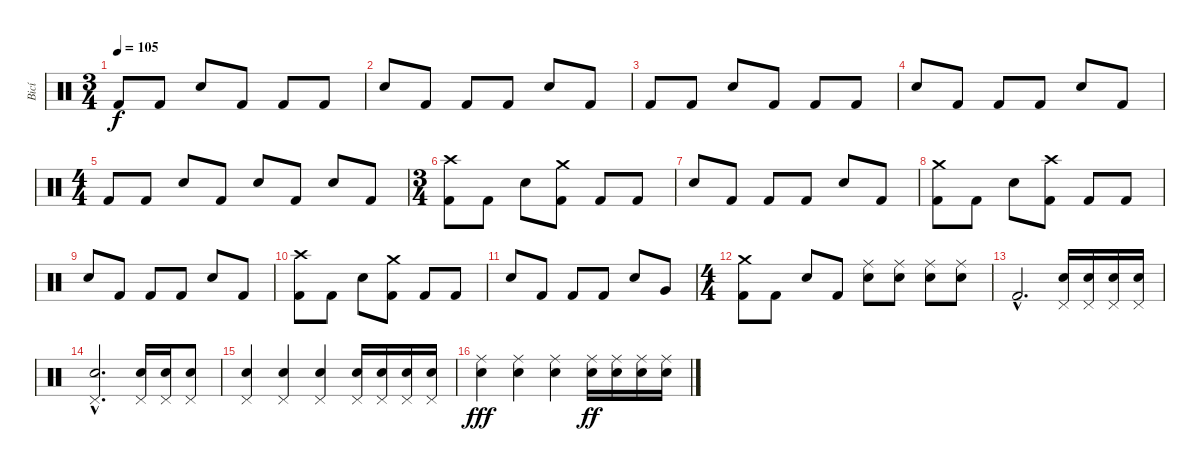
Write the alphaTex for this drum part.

\track ("Bicí" "Bicí") {instrument percussion}
\staff {score}
\articulation defaults
\ts (3 4)
\tempo 105
\clef neutral
\ks c "Kick (hit) 2".8{dy f} "Kick (hit) 2".8 "Snare (hit) 2".8 "Kick (hit) 2".8 "Kick (hit) 2".8 "Kick (hit) 2".8
|
"Snare (hit) 2".8 "Kick (hit) 2".8 "Kick (hit) 2".8 "Kick (hit) 2".8 "Snare (hit) 2".8 "Kick (hit) 2".8 |
"Kick (hit) 2".8 "Kick (hit) 2".8 "Snare (hit) 2".8 "Kick (hit) 2".8 "Kick (hit) 2".8 "Kick (hit) 2".8 |
"Snare (hit) 2".8 "Kick (hit) 2".8 "Kick (hit) 2".8 "Kick (hit) 2".8 "Snare (hit) 2".8 "Kick (hit) 2".8 |
\ts (4 4)
"Kick (hit) 2".8 "Kick (hit) 2".8 "Snare (hit) 2".8 "Kick (hit) 2".8 "Snare (hit) 2".8 "Kick (hit) 2".8 "Snare (hit) 2".8 "Kick (hit) 2".8 |
\ts (3 4)
("Kick (hit) 2" "Crash high (hit)").8 "Kick (hit) 2".8 "Snare (hit) 2".8 ("Kick (hit) 2" "Crash medium (hit)").8 "Kick (hit) 2".8 "Kick (hit) 2".8 |
"Snare (hit) 2".8 "Kick (hit) 2".8 "Kick (hit) 2".8 "Kick (hit) 2".8 "Snare (hit) 2".8 "Kick (hit) 2".8 |
("Kick (hit) 2" "Crash medium (hit)").8 "Kick (hit) 2".8 "Snare (hit) 2".8 ("Kick (hit) 2" "Crash high (hit)").8 "Kick (hit) 2".8 "Kick (hit) 2".8 |
"Snare (hit) 2".8 "Kick (hit) 2".8 "Kick (hit) 2".8 "Kick (hit) 2".8 "Snare (hit) 2".8 "Kick (hit) 2".8 |
("Kick (hit) 2" "Crash high (hit)").8 "Kick (hit) 2".8 "Snare (hit) 2".8 ("Kick (hit) 2" "Crash medium (hit)").8 "Kick (hit) 2".8 "Kick (hit) 2".8 |
"Snare (hit) 2".8 "Kick (hit) 2".8 "Kick (hit) 2".8 "Kick (hit) 2".8 "Snare (hit) 2".8 "Very Low Tom (hit)".8 |
\ts (4 4)
("Kick (hit) 2" "Crash medium (hit)").8 "Kick (hit) 2".8 "Snare (hit) 2".8 "Kick (hit) 2".8 ("Ride (middle)" "Snare (hit) 2").8 ("Ride (middle)" "Snare (hit) 2").8 ("Ride (middle)" "Snare (hit) 2").8 ("Ride (middle)" "Snare (hit) 2").8 |
"Kick (hit) 2"{hac}.2{d} ("Pedal Hi-Hat (hit)" "Snare (hit) 2").16 ("Pedal Hi-Hat (hit)" "Snare (hit) 2").16 ("Pedal Hi-Hat (hit)" "Snare (hit) 2").16 ("Pedal Hi-Hat (hit)" "Snare (hit) 2").16 |
("Pedal Hi-Hat (hit)"{hac} "Snare (hit) 2"{hac}).2{d} ("Pedal Hi-Hat (hit)" "Snare (hit) 2").16 ("Pedal Hi-Hat (hit)" "Snare (hit) 2").16 ("Pedal Hi-Hat (hit)" "Snare (hit) 2").8 |
("Pedal Hi-Hat (hit)" "Snare (hit) 2").4 ("Pedal Hi-Hat (hit)" "Snare (hit) 2").4 ("Pedal Hi-Hat (hit)" "Snare (hit) 2").4 ("Pedal Hi-Hat (hit)" "Snare (hit) 2").16 ("Pedal Hi-Hat (hit)" "Snare (hit) 2").16 ("Pedal Hi-Hat (hit)" "Snare (hit) 2").16 ("Pedal Hi-Hat (hit)" "Snare (hit) 2").16 |
("Ride (middle)" "Snare (hit) 2").4{dy fff} ("Ride (middle)" "Snare (hit) 2").4 ("Ride (middle)" "Snare (hit) 2").4 ("Ride (middle)" "Snare (hit) 2").16{dy ff} ("Ride (middle)" "Snare (hit) 2").16 ("Ride (middle)" "Snare (hit) 2").16 ("Ride (middle)" "Snare (hit) 2").16
